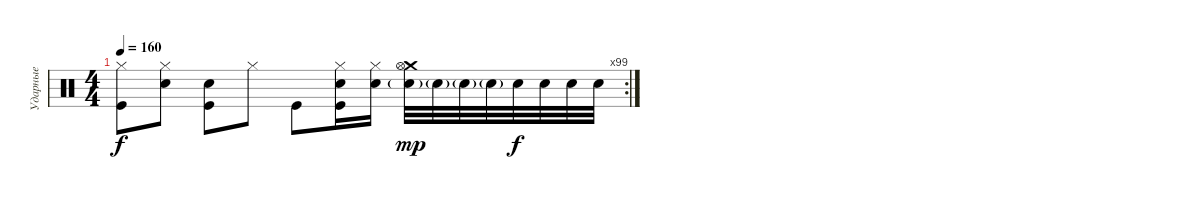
\track ("Ударные" "Ударные") {instrument percussion}
\staff {score}
\articulation defaults
\rc 99
\ts (4 4)
\tempo 160
\clef neutral
\ks c
("Kick (hit)" "Hi-Hat (closed)").8{dy f} ("Hi-Hat (closed)" "Electric Snare (hit)").8 ("Kick (hit)" "Electric Snare (hit)").8 "Hi-Hat (closed)".8 "Kick (hit)".8 ("Kick (hit)" "Hi-Hat (closed)" "Electric Snare (hit)").16 ("Hi-Hat (closed)" "Electric Snare (hit)").16 ("Crash medium (hit)" "Hi-Hat (open)" "Snare (hit) 2"{g}).32{dy mp} "Snare (hit) 2"{g}.32 "Snare (hit) 2"{g}.32 "Snare (hit) 2"{g}.32 "Snare (hit) 2".32{dy f} "Electric Snare (hit)".32 "Electric Snare (hit)".32 "Electric Snare (hit)".32
